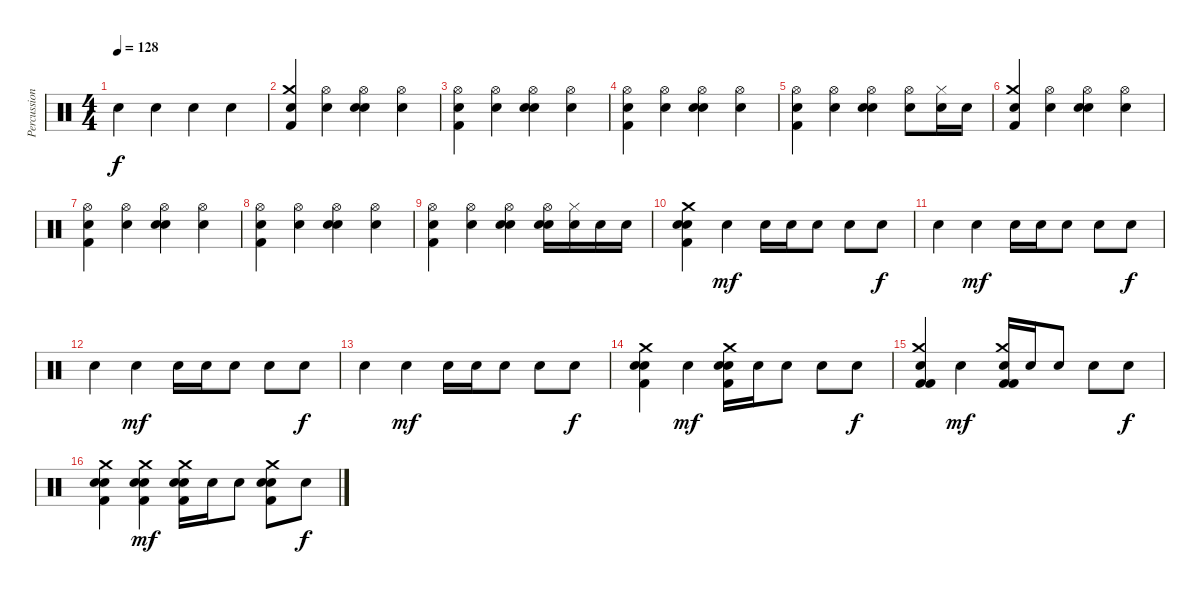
\track ("Percussion" "Percussion") {instrument percussion}
\staff {score}
\articulation defaults
\ts (4 4)
\tempo 128
\clef neutral
\ks c "Hand Clap (hit)".4{dy f} "Hand Clap (hit)".4 "Hand Clap (hit)".4 "Hand Clap (hit)".4
|
("Crash medium (hit)" "Hand Clap (hit)" "Kick (hit) 2").4 ("Hi-Hat (open)" "Hand Clap (hit)").4 ("Hi-Hat (open)" "Hand Clap (hit)" "Snare (hit) 2").4 ("Hi-Hat (open)" "Hand Clap (hit)").4 |
("Hi-Hat (open)" "Hand Clap (hit)" "Kick (hit) 2").4 ("Hi-Hat (open)" "Hand Clap (hit)").4 ("Hi-Hat (open)" "Hand Clap (hit)" "Snare (hit) 2").4 ("Hi-Hat (open)" "Hand Clap (hit)").4 |
("Hi-Hat (open)" "Hand Clap (hit)" "Kick (hit) 2").4 ("Hi-Hat (open)" "Hand Clap (hit)").4 ("Hi-Hat (open)" "Hand Clap (hit)" "Snare (hit) 2").4 ("Hi-Hat (open)" "Hand Clap (hit)").4 |
("Hi-Hat (open)" "Hand Clap (hit)" "Kick (hit) 2").4 ("Hi-Hat (open)" "Hand Clap (hit)").4 ("Hi-Hat (open)" "Hand Clap (hit)" "Snare (hit) 2").4 ("Hi-Hat (open)" "Hand Clap (hit)").8 ("Hi-Hat (closed)" "Snare (hit) 2").16 "Snare (hit) 2".16 |
("Crash medium (hit)" "Hand Clap (hit)" "Kick (hit) 2").4 ("Hi-Hat (open)" "Hand Clap (hit)").4 ("Hi-Hat (open)" "Hand Clap (hit)" "Snare (hit) 2").4 ("Hi-Hat (open)" "Hand Clap (hit)").4 |
("Hi-Hat (open)" "Hand Clap (hit)" "Kick (hit) 2").4 ("Hi-Hat (open)" "Hand Clap (hit)").4 ("Hi-Hat (open)" "Hand Clap (hit)" "Snare (hit) 2").4 ("Hi-Hat (open)" "Hand Clap (hit)").4 |
("Hi-Hat (open)" "Hand Clap (hit)" "Kick (hit) 2").4 ("Hi-Hat (open)" "Hand Clap (hit)").4 ("Hi-Hat (open)" "Hand Clap (hit)" "Snare (hit) 2").4 ("Hi-Hat (open)" "Hand Clap (hit)").4 |
("Hi-Hat (open)" "Hand Clap (hit)" "Kick (hit) 2").4 ("Hi-Hat (open)" "Hand Clap (hit)").4 ("Hi-Hat (open)" "Hand Clap (hit)" "Snare (hit) 2").4 ("Hi-Hat (open)" "Hand Clap (hit)" "Snare (hit) 2").16 ("Hi-Hat (closed)" "Snare (hit) 2").16 "Snare (hit) 2".16 "Snare (hit) 2".16 |
("Crash medium (hit)" "Hand Clap (hit)" "Snare (hit) 2" "Kick (hit) 2").4 "Hand Clap (hit)".4{dy mf} "Hand Clap (hit)".16 "Hand Clap (hit)".16 "Hand Clap (hit)".8 "Hand Clap (hit)".8 "Hand Clap (hit)".8{dy f} |
"Hand Clap (hit)".4 "Hand Clap (hit)".4{dy mf} "Hand Clap (hit)".16 "Hand Clap (hit)".16 "Hand Clap (hit)".8 "Hand Clap (hit)".8 "Hand Clap (hit)".8{dy f} |
"Hand Clap (hit)".4 "Hand Clap (hit)".4{dy mf} "Hand Clap (hit)".16 "Hand Clap (hit)".16 "Hand Clap (hit)".8 "Hand Clap (hit)".8 "Hand Clap (hit)".8{dy f} |
"Hand Clap (hit)".4 "Hand Clap (hit)".4{dy mf} "Hand Clap (hit)".16 "Hand Clap (hit)".16 "Hand Clap (hit)".8 "Hand Clap (hit)".8 "Hand Clap (hit)".8{dy f} |
("Crash medium (hit)" "Hand Clap (hit)" "Snare (hit) 2" "Kick (hit) 2").4 "Hand Clap (hit)".4{dy mf} ("Crash medium (hit)" "Hand Clap (hit)" "Snare (hit) 2" "Kick (hit) 2").16 "Hand Clap (hit)".16 "Hand Clap (hit)".8 "Hand Clap (hit)".8 "Hand Clap (hit)".8{dy f} |
("Crash medium (hit)" "Hand Clap (hit)" "Kick (hit) 2" "Kick (hit) 2").4 "Hand Clap (hit)".4{dy mf} ("Crash medium (hit)" "Hand Clap (hit)" "Kick (hit) 2" "Kick (hit) 2").16 "Hand Clap (hit)".16 "Hand Clap (hit)".8 "Hand Clap (hit)".8 "Hand Clap (hit)".8{dy f} |
("Crash medium (hit)" "Hand Clap (hit)" "Snare (hit) 2" "Kick (hit) 2").4 ("Crash medium (hit)" "Hand Clap (hit)" "Snare (hit) 2" "Kick (hit) 2").4{dy mf} ("Crash medium (hit)" "Hand Clap (hit)" "Snare (hit) 2" "Kick (hit) 2").16 "Hand Clap (hit)".16 "Hand Clap (hit)".8 ("Crash medium (hit)" "Hand Clap (hit)" "Snare (hit) 2" "Kick (hit) 2").8 "Hand Clap (hit)".8{dy f}
